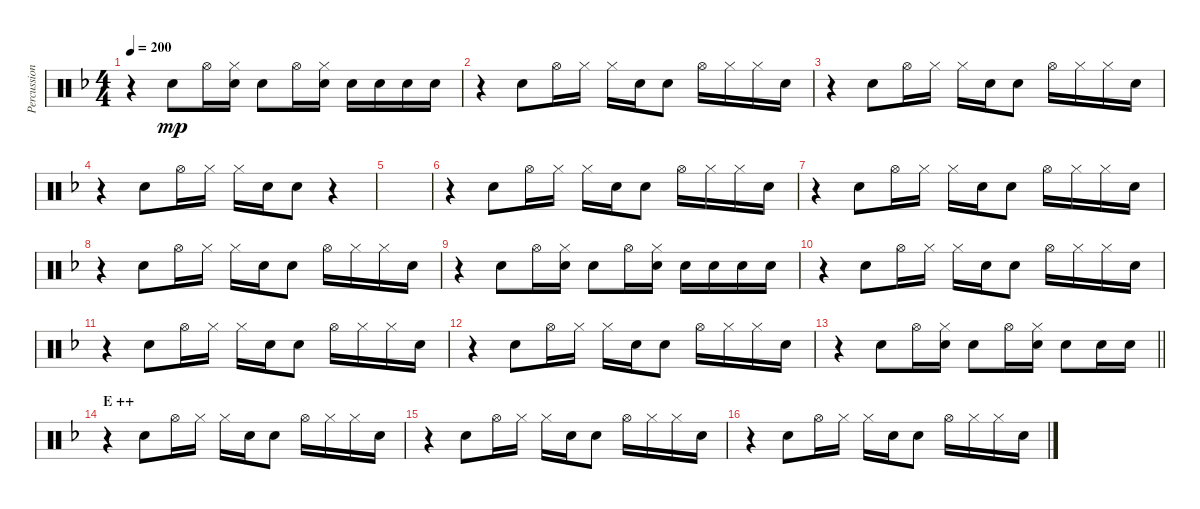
\track ("Percussion (Tainaka Ritsu)" "Percussion") {instrument percussion}
\staff {score}
\articulation defaults
\ts (4 4)
\tempo 200
\clef neutral
\ks f
r.4{dy mp} "Electric Snare (hit)".8 "Hi-Hat (open)".16 ("Hi-Hat (closed)" "Electric Snare (hit)").16 "Electric Snare (hit)".8 "Hi-Hat (open)".16 ("Hi-Hat (closed)" "Electric Snare (hit)").16 "Electric Snare (hit)".16 "Electric Snare (hit)".16 "Electric Snare (hit)".16 "Electric Snare (hit)".16 |
r.4 "Electric Snare (hit)".8 "Hi-Hat (open)".16 "Hi-Hat (closed)".16 "Hi-Hat (closed)".16 "Electric Snare (hit)".16 "Electric Snare (hit)".8 "Hi-Hat (open)".16 "Hi-Hat (closed)".16 "Hi-Hat (closed)".16 "Electric Snare (hit)".16 |
r.4 "Electric Snare (hit)".8 "Hi-Hat (open)".16 "Hi-Hat (closed)".16 "Hi-Hat (closed)".16 "Electric Snare (hit)".16 "Electric Snare (hit)".8 "Hi-Hat (open)".16 "Hi-Hat (closed)".16 "Hi-Hat (closed)".16 "Electric Snare (hit)".16 |
r.4 "Electric Snare (hit)".8 "Hi-Hat (open)".16 "Hi-Hat (closed)".16 "Hi-Hat (closed)".16 "Electric Snare (hit)".16 "Electric Snare (hit)".8 r.4 |
|
r.4 "Electric Snare (hit)".8 "Hi-Hat (open)".16 "Hi-Hat (closed)".16 "Hi-Hat (closed)".16 "Electric Snare (hit)".16 "Electric Snare (hit)".8 "Hi-Hat (open)".16 "Hi-Hat (closed)".16 "Hi-Hat (closed)".16 "Electric Snare (hit)".16 |
r.4 "Electric Snare (hit)".8 "Hi-Hat (open)".16 "Hi-Hat (closed)".16 "Hi-Hat (closed)".16 "Electric Snare (hit)".16 "Electric Snare (hit)".8 "Hi-Hat (open)".16 "Hi-Hat (closed)".16 "Hi-Hat (closed)".16 "Electric Snare (hit)".16 |
r.4 "Electric Snare (hit)".8 "Hi-Hat (open)".16 "Hi-Hat (closed)".16 "Hi-Hat (closed)".16 "Electric Snare (hit)".16 "Electric Snare (hit)".8 "Hi-Hat (open)".16 "Hi-Hat (closed)".16 "Hi-Hat (closed)".16 "Electric Snare (hit)".16 |
r.4 "Electric Snare (hit)".8 "Hi-Hat (open)".16 ("Hi-Hat (closed)" "Electric Snare (hit)").16 "Electric Snare (hit)".8 "Hi-Hat (open)".16 ("Hi-Hat (closed)" "Electric Snare (hit)").16 "Electric Snare (hit)".16 "Electric Snare (hit)".16 "Electric Snare (hit)".16 "Electric Snare (hit)".16 |
r.4 "Electric Snare (hit)".8 "Hi-Hat (open)".16 "Hi-Hat (closed)".16 "Hi-Hat (closed)".16 "Electric Snare (hit)".16 "Electric Snare (hit)".8 "Hi-Hat (open)".16 "Hi-Hat (closed)".16 "Hi-Hat (closed)".16 "Electric Snare (hit)".16 |
r.4 "Electric Snare (hit)".8 "Hi-Hat (open)".16 "Hi-Hat (closed)".16 "Hi-Hat (closed)".16 "Electric Snare (hit)".16 "Electric Snare (hit)".8 "Hi-Hat (open)".16 "Hi-Hat (closed)".16 "Hi-Hat (closed)".16 "Electric Snare (hit)".16 |
r.4 "Electric Snare (hit)".8 "Hi-Hat (open)".16 "Hi-Hat (closed)".16 "Hi-Hat (closed)".16 "Electric Snare (hit)".16 "Electric Snare (hit)".8 "Hi-Hat (open)".16 "Hi-Hat (closed)".16 "Hi-Hat (closed)".16 "Electric Snare (hit)".16 |
\barLineRight lightlight
r.4 "Electric Snare (hit)".8 "Hi-Hat (open)".16 ("Hi-Hat (closed)" "Electric Snare (hit)").16 "Electric Snare (hit)".8 "Hi-Hat (open)".16 ("Hi-Hat (closed)" "Electric Snare (hit)").16 "Electric Snare (hit)".8 "Electric Snare (hit)".16 "Electric Snare (hit)".16 |
\section ("" "E ++")
r.4 "Electric Snare (hit)".8 "Hi-Hat (open)".16 "Hi-Hat (closed)".16 "Hi-Hat (closed)".16 "Electric Snare (hit)".16 "Electric Snare (hit)".8 "Hi-Hat (open)".16 "Hi-Hat (closed)".16 "Hi-Hat (closed)".16 "Electric Snare (hit)".16 |
r.4 "Electric Snare (hit)".8 "Hi-Hat (open)".16 "Hi-Hat (closed)".16 "Hi-Hat (closed)".16 "Electric Snare (hit)".16 "Electric Snare (hit)".8 "Hi-Hat (open)".16 "Hi-Hat (closed)".16 "Hi-Hat (closed)".16 "Electric Snare (hit)".16 |
r.4 "Electric Snare (hit)".8 "Hi-Hat (open)".16 "Hi-Hat (closed)".16 "Hi-Hat (closed)".16 "Electric Snare (hit)".16 "Electric Snare (hit)".8 "Hi-Hat (open)".16 "Hi-Hat (closed)".16 "Hi-Hat (closed)".16 "Electric Snare (hit)".16
